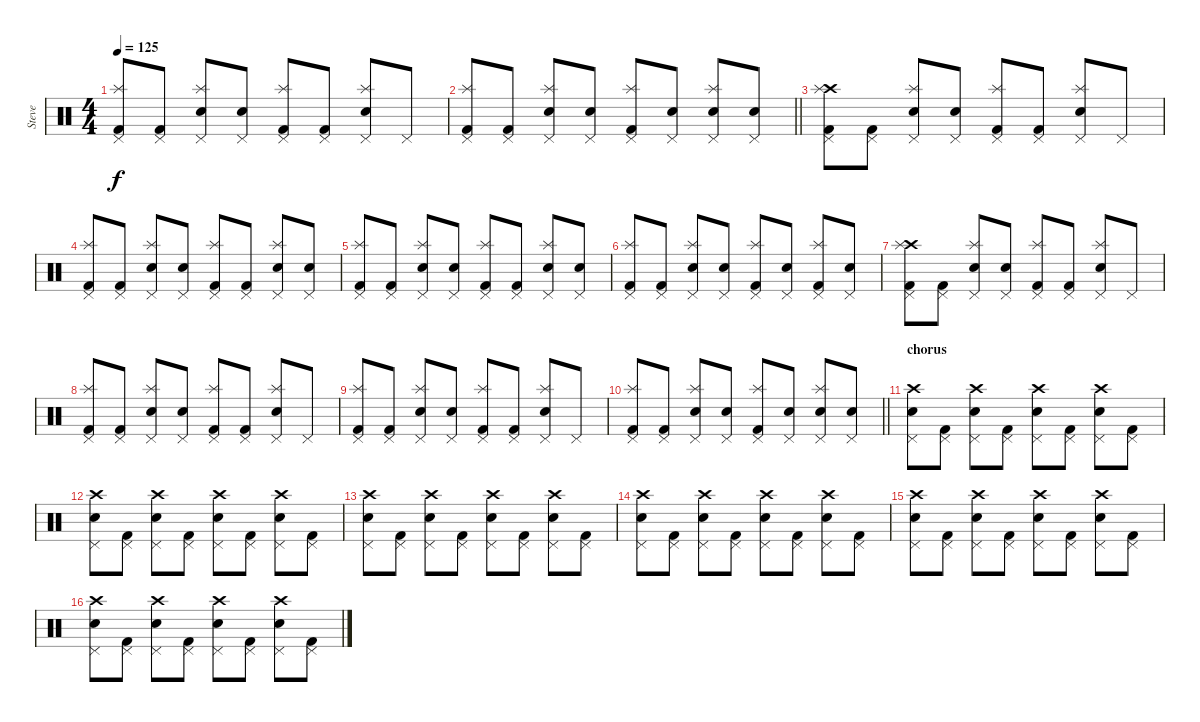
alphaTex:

\track ("Steve" "Steve") {instrument percussion}
\staff {score}
\articulation defaults
\ts (4 4)
\tempo 125
\clef neutral
\ks c
("Pedal Hi-Hat (hit)" "Splash (hit)" "Kick (hit) 2").8{dy f} ("Pedal Hi-Hat (hit)" "Kick (hit) 2").8 ("Pedal Hi-Hat (hit)" "Splash (hit)" "Electric Snare (hit)").8 ("Pedal Hi-Hat (hit)" "Electric Snare (hit)").8 ("Pedal Hi-Hat (hit)" "Splash (hit)" "Kick (hit) 2").8 ("Pedal Hi-Hat (hit)" "Kick (hit) 2").8 ("Pedal Hi-Hat (hit)" "Splash (hit)" "Electric Snare (hit)").8 "Pedal Hi-Hat (hit)".8 |
\barLineRight lightlight
("Pedal Hi-Hat (hit)" "Splash (hit)" "Kick (hit) 2").8 ("Pedal Hi-Hat (hit)" "Kick (hit) 2").8 ("Pedal Hi-Hat (hit)" "Splash (hit)" "Electric Snare (hit)").8 ("Pedal Hi-Hat (hit)" "Electric Snare (hit)").8 ("Pedal Hi-Hat (hit)" "Splash (hit)" "Kick (hit) 2").8 ("Pedal Hi-Hat (hit)" "Electric Snare (hit)").8 ("Pedal Hi-Hat (hit)" "Splash (hit)" "Electric Snare (hit)").8 ("Pedal Hi-Hat (hit)" "Electric Snare (hit)").8 |
("Pedal Hi-Hat (hit)" "Crash high (hit)" "Splash (hit)" "Kick (hit) 2").8 ("Pedal Hi-Hat (hit)" "Kick (hit) 2").8 ("Pedal Hi-Hat (hit)" "Splash (hit)" "Electric Snare (hit)").8 ("Pedal Hi-Hat (hit)" "Electric Snare (hit)").8 ("Pedal Hi-Hat (hit)" "Splash (hit)" "Kick (hit) 2").8 ("Pedal Hi-Hat (hit)" "Kick (hit) 2").8 ("Pedal Hi-Hat (hit)" "Splash (hit)" "Electric Snare (hit)").8 "Pedal Hi-Hat (hit)".8 |
("Pedal Hi-Hat (hit)" "Splash (hit)" "Kick (hit) 2").8 ("Pedal Hi-Hat (hit)" "Kick (hit) 2").8 ("Pedal Hi-Hat (hit)" "Splash (hit)" "Electric Snare (hit)").8 ("Pedal Hi-Hat (hit)" "Electric Snare (hit)").8 ("Pedal Hi-Hat (hit)" "Splash (hit)" "Kick (hit) 2").8 ("Pedal Hi-Hat (hit)" "Kick (hit) 2").8 ("Pedal Hi-Hat (hit)" "Splash (hit)" "Electric Snare (hit)").8 ("Pedal Hi-Hat (hit)" "Electric Snare (hit)").8 |
("Pedal Hi-Hat (hit)" "Splash (hit)" "Kick (hit) 2").8 ("Pedal Hi-Hat (hit)" "Kick (hit) 2").8 ("Pedal Hi-Hat (hit)" "Splash (hit)" "Electric Snare (hit)").8 ("Pedal Hi-Hat (hit)" "Electric Snare (hit)").8 ("Pedal Hi-Hat (hit)" "Splash (hit)" "Kick (hit) 2").8 ("Pedal Hi-Hat (hit)" "Kick (hit) 2").8 ("Pedal Hi-Hat (hit)" "Splash (hit)" "Electric Snare (hit)").8 ("Pedal Hi-Hat (hit)" "Electric Snare (hit)").8 |
("Pedal Hi-Hat (hit)" "Splash (hit)" "Kick (hit) 2").8 ("Pedal Hi-Hat (hit)" "Kick (hit) 2").8 ("Pedal Hi-Hat (hit)" "Splash (hit)" "Electric Snare (hit)").8 ("Pedal Hi-Hat (hit)" "Electric Snare (hit)").8 ("Pedal Hi-Hat (hit)" "Splash (hit)" "Kick (hit) 2").8 ("Pedal Hi-Hat (hit)" "Electric Snare (hit)").8 ("Pedal Hi-Hat (hit)" "Splash (hit)" "Kick (hit) 2").8 ("Pedal Hi-Hat (hit)" "Electric Snare (hit)").8 |
("Pedal Hi-Hat (hit)" "Crash high (hit)" "Splash (hit)" "Kick (hit) 2").8 ("Pedal Hi-Hat (hit)" "Kick (hit) 2").8 ("Pedal Hi-Hat (hit)" "Splash (hit)" "Electric Snare (hit)").8 ("Pedal Hi-Hat (hit)" "Electric Snare (hit)").8 ("Pedal Hi-Hat (hit)" "Splash (hit)" "Kick (hit) 2").8 ("Pedal Hi-Hat (hit)" "Kick (hit) 2").8 ("Pedal Hi-Hat (hit)" "Splash (hit)" "Electric Snare (hit)").8 "Pedal Hi-Hat (hit)".8 |
("Pedal Hi-Hat (hit)" "Splash (hit)" "Kick (hit) 2").8 ("Pedal Hi-Hat (hit)" "Kick (hit) 2").8 ("Pedal Hi-Hat (hit)" "Splash (hit)" "Electric Snare (hit)").8 ("Pedal Hi-Hat (hit)" "Electric Snare (hit)").8 ("Pedal Hi-Hat (hit)" "Splash (hit)" "Kick (hit) 2").8 ("Pedal Hi-Hat (hit)" "Kick (hit) 2").8 ("Pedal Hi-Hat (hit)" "Splash (hit)" "Electric Snare (hit)").8 "Pedal Hi-Hat (hit)".8 |
("Pedal Hi-Hat (hit)" "Splash (hit)" "Kick (hit) 2").8 ("Pedal Hi-Hat (hit)" "Kick (hit) 2").8 ("Pedal Hi-Hat (hit)" "Splash (hit)" "Electric Snare (hit)").8 ("Pedal Hi-Hat (hit)" "Electric Snare (hit)").8 ("Pedal Hi-Hat (hit)" "Splash (hit)" "Kick (hit) 2").8 ("Pedal Hi-Hat (hit)" "Kick (hit) 2").8 ("Pedal Hi-Hat (hit)" "Splash (hit)" "Electric Snare (hit)").8 "Pedal Hi-Hat (hit)".8 |
\barLineRight lightlight
("Pedal Hi-Hat (hit)" "Splash (hit)" "Kick (hit) 2").8 ("Pedal Hi-Hat (hit)" "Kick (hit) 2").8 ("Pedal Hi-Hat (hit)" "Splash (hit)" "Electric Snare (hit)").8 ("Pedal Hi-Hat (hit)" "Electric Snare (hit)").8 ("Pedal Hi-Hat (hit)" "Splash (hit)" "Kick (hit) 2").8 ("Pedal Hi-Hat (hit)" "Electric Snare (hit)").8 ("Pedal Hi-Hat (hit)" "Splash (hit)" "Electric Snare (hit)").8 ("Pedal Hi-Hat (hit)" "Electric Snare (hit)").8 |
\section ("" "chorus")
("Crash high (hit)" "Pedal Hi-Hat (hit)" "Electric Snare (hit)").8 ("Pedal Hi-Hat (hit)" "Kick (hit) 2").8 ("Crash high (hit)" "Pedal Hi-Hat (hit)" "Electric Snare (hit)").8 ("Pedal Hi-Hat (hit)" "Kick (hit) 2").8 ("Crash high (hit)" "Pedal Hi-Hat (hit)" "Electric Snare (hit)").8 ("Pedal Hi-Hat (hit)" "Kick (hit) 2").8 ("Crash high (hit)" "Pedal Hi-Hat (hit)" "Electric Snare (hit)").8 ("Pedal Hi-Hat (hit)" "Kick (hit) 2").8 |
("Crash high (hit)" "Pedal Hi-Hat (hit)" "Electric Snare (hit)").8 ("Pedal Hi-Hat (hit)" "Kick (hit) 2").8 ("Crash high (hit)" "Pedal Hi-Hat (hit)" "Electric Snare (hit)").8 ("Pedal Hi-Hat (hit)" "Kick (hit) 2").8 ("Crash high (hit)" "Pedal Hi-Hat (hit)" "Electric Snare (hit)").8 ("Pedal Hi-Hat (hit)" "Kick (hit) 2").8 ("Crash high (hit)" "Pedal Hi-Hat (hit)" "Electric Snare (hit)").8 ("Pedal Hi-Hat (hit)" "Kick (hit) 2").8 |
("Crash high (hit)" "Pedal Hi-Hat (hit)" "Electric Snare (hit)").8 ("Pedal Hi-Hat (hit)" "Kick (hit) 2").8 ("Crash high (hit)" "Pedal Hi-Hat (hit)" "Electric Snare (hit)").8 ("Pedal Hi-Hat (hit)" "Kick (hit) 2").8 ("Crash high (hit)" "Pedal Hi-Hat (hit)" "Electric Snare (hit)").8 ("Pedal Hi-Hat (hit)" "Kick (hit) 2").8 ("Crash high (hit)" "Pedal Hi-Hat (hit)" "Electric Snare (hit)").8 ("Pedal Hi-Hat (hit)" "Kick (hit) 2").8 |
("Crash high (hit)" "Pedal Hi-Hat (hit)" "Electric Snare (hit)").8 ("Pedal Hi-Hat (hit)" "Kick (hit) 2").8 ("Crash high (hit)" "Pedal Hi-Hat (hit)" "Electric Snare (hit)").8 ("Pedal Hi-Hat (hit)" "Kick (hit) 2").8 ("Crash high (hit)" "Pedal Hi-Hat (hit)" "Electric Snare (hit)").8 ("Pedal Hi-Hat (hit)" "Kick (hit) 2").8 ("Crash high (hit)" "Pedal Hi-Hat (hit)" "Electric Snare (hit)").8 ("Pedal Hi-Hat (hit)" "Kick (hit) 2").8 |
("Crash high (hit)" "Pedal Hi-Hat (hit)" "Electric Snare (hit)").8 ("Pedal Hi-Hat (hit)" "Kick (hit) 2").8 ("Crash high (hit)" "Pedal Hi-Hat (hit)" "Electric Snare (hit)").8 ("Pedal Hi-Hat (hit)" "Kick (hit) 2").8 ("Crash high (hit)" "Pedal Hi-Hat (hit)" "Electric Snare (hit)").8 ("Pedal Hi-Hat (hit)" "Kick (hit) 2").8 ("Crash high (hit)" "Pedal Hi-Hat (hit)" "Electric Snare (hit)").8 ("Pedal Hi-Hat (hit)" "Kick (hit) 2").8 |
("Crash high (hit)" "Pedal Hi-Hat (hit)" "Electric Snare (hit)").8 ("Pedal Hi-Hat (hit)" "Kick (hit) 2").8 ("Crash high (hit)" "Pedal Hi-Hat (hit)" "Electric Snare (hit)").8 ("Pedal Hi-Hat (hit)" "Kick (hit) 2").8 ("Crash high (hit)" "Pedal Hi-Hat (hit)" "Electric Snare (hit)").8 ("Pedal Hi-Hat (hit)" "Kick (hit) 2").8 ("Crash high (hit)" "Pedal Hi-Hat (hit)" "Electric Snare (hit)").8 ("Pedal Hi-Hat (hit)" "Kick (hit) 2").8
